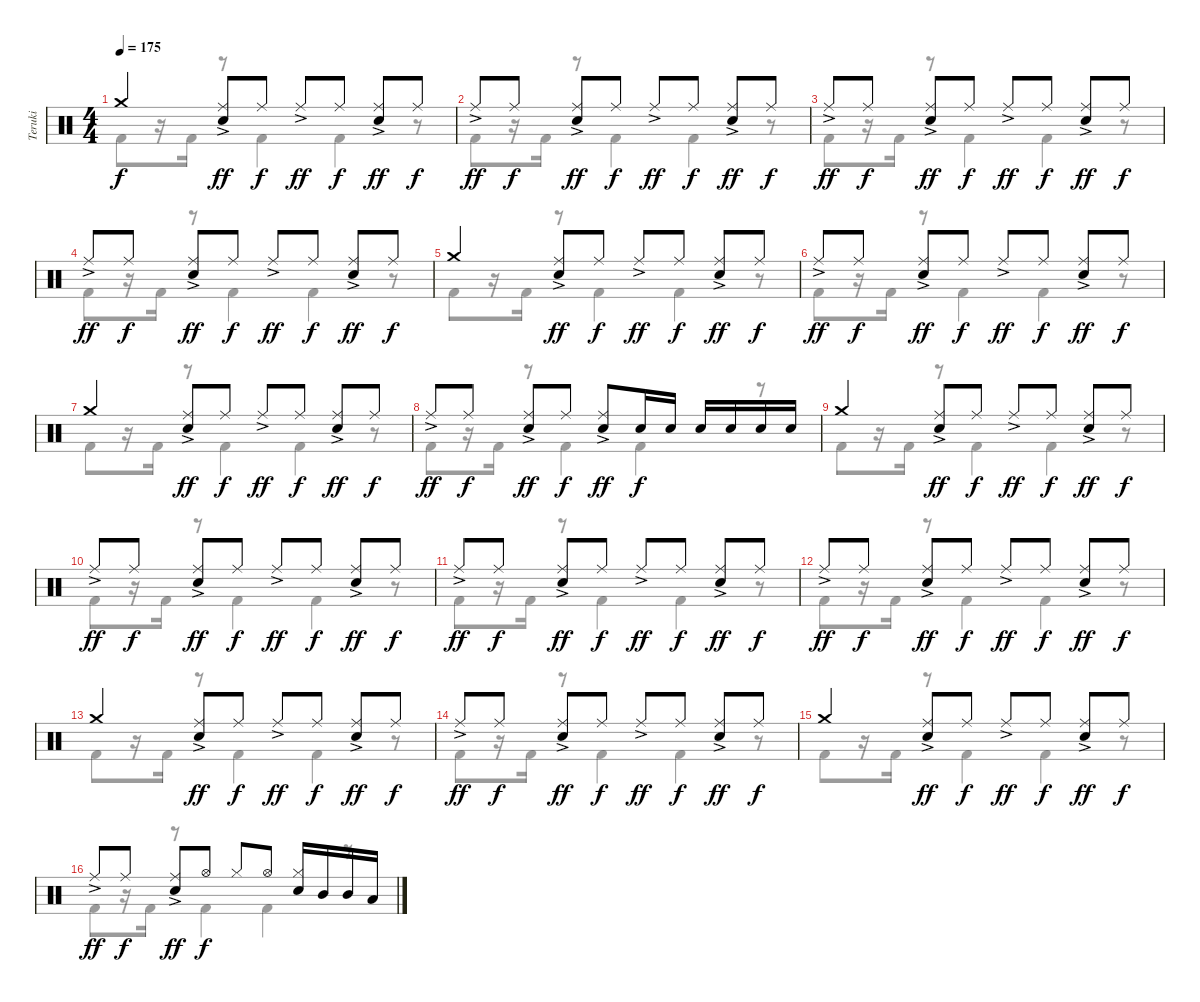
\track ("Teruki" "Teruki") {instrument percussion}
\staff {score}
\articulation defaults
\voice
\ts (4 4)
\tempo 175
\clef neutral
\ks c "Crash medium (hit)".4{dy f}
("Ride (middle)"{ac} "Snare (hit) 2").8{dy ff} "Ride (middle)".8{dy f} "Ride (middle)"{ac}.8{dy ff} "Ride (middle)".8{dy f} ("Ride (middle)"{ac} "Snare (hit) 2").8{dy ff} "Ride (middle)".8{dy f} |
"Ride (middle)"{ac}.8{dy ff} "Ride (middle)".8{dy f} ("Ride (middle)"{ac} "Snare (hit) 2").8{dy ff} "Ride (middle)".8{dy f} "Ride (middle)"{ac}.8{dy ff} "Ride (middle)".8{dy f} ("Ride (middle)"{ac} "Snare (hit) 2").8{dy ff} "Ride (middle)".8{dy f} |
"Ride (middle)"{ac}.8{dy ff} "Ride (middle)".8{dy f} ("Ride (middle)"{ac} "Snare (hit) 2").8{dy ff} "Ride (middle)".8{dy f} "Ride (middle)"{ac}.8{dy ff} "Ride (middle)".8{dy f} ("Ride (middle)"{ac} "Snare (hit) 2").8{dy ff} "Ride (middle)".8{dy f} |
"Ride (middle)"{ac}.8{dy ff} "Ride (middle)".8{dy f} ("Ride (middle)"{ac} "Snare (hit) 2").8{dy ff} "Ride (middle)".8{dy f} "Ride (middle)"{ac}.8{dy ff} "Ride (middle)".8{dy f} ("Ride (middle)"{ac} "Snare (hit) 2").8{dy ff} "Ride (middle)".8{dy f} |
"Crash medium (hit)".4 ("Ride (middle)"{ac} "Snare (hit) 2").8{dy ff} "Ride (middle)".8{dy f} "Ride (middle)"{ac}.8{dy ff} "Ride (middle)".8{dy f} ("Ride (middle)"{ac} "Snare (hit) 2").8{dy ff} "Ride (middle)".8{dy f} |
"Ride (middle)"{ac}.8{dy ff} "Ride (middle)".8{dy f} ("Ride (middle)"{ac} "Snare (hit) 2").8{dy ff} "Ride (middle)".8{dy f} "Ride (middle)"{ac}.8{dy ff} "Ride (middle)".8{dy f} ("Ride (middle)"{ac} "Snare (hit) 2").8{dy ff} "Ride (middle)".8{dy f} |
"Crash medium (hit)".4 ("Ride (middle)"{ac} "Snare (hit) 2").8{dy ff} "Ride (middle)".8{dy f} "Ride (middle)"{ac}.8{dy ff} "Ride (middle)".8{dy f} ("Ride (middle)"{ac} "Snare (hit) 2").8{dy ff} "Ride (middle)".8{dy f} |
"Ride (middle)"{ac}.8{dy ff} "Ride (middle)".8{dy f} ("Ride (middle)"{ac} "Snare (hit) 2").8{dy ff} "Ride (middle)".8{dy f} ("Ride (middle)"{ac} "Snare (hit) 2").8{dy ff} "Snare (hit) 2".16{dy f} "Snare (hit) 2".16 "Snare (hit) 2".16 "Snare (hit) 2".16 "Snare (hit) 2".16 "Snare (hit) 2".16 |
"Crash medium (hit)".4 ("Ride (middle)"{ac} "Snare (hit) 2").8{dy ff} "Ride (middle)".8{dy f} "Ride (middle)"{ac}.8{dy ff} "Ride (middle)".8{dy f} ("Ride (middle)"{ac} "Snare (hit) 2").8{dy ff} "Ride (middle)".8{dy f} |
"Ride (middle)"{ac}.8{dy ff} "Ride (middle)".8{dy f} ("Ride (middle)"{ac} "Snare (hit) 2").8{dy ff} "Ride (middle)".8{dy f} "Ride (middle)"{ac}.8{dy ff} "Ride (middle)".8{dy f} ("Ride (middle)"{ac} "Snare (hit) 2").8{dy ff} "Ride (middle)".8{dy f} |
"Ride (middle)"{ac}.8{dy ff} "Ride (middle)".8{dy f} ("Ride (middle)"{ac} "Snare (hit) 2").8{dy ff} "Ride (middle)".8{dy f} "Ride (middle)"{ac}.8{dy ff} "Ride (middle)".8{dy f} ("Ride (middle)"{ac} "Snare (hit) 2").8{dy ff} "Ride (middle)".8{dy f} |
"Ride (middle)"{ac}.8{dy ff} "Ride (middle)".8{dy f} ("Ride (middle)"{ac} "Snare (hit) 2").8{dy ff} "Ride (middle)".8{dy f} "Ride (middle)"{ac}.8{dy ff} "Ride (middle)".8{dy f} ("Ride (middle)"{ac} "Snare (hit) 2").8{dy ff} "Ride (middle)".8{dy f} |
"Crash medium (hit)".4 ("Ride (middle)"{ac} "Snare (hit) 2").8{dy ff} "Ride (middle)".8{dy f} "Ride (middle)"{ac}.8{dy ff} "Ride (middle)".8{dy f} ("Ride (middle)"{ac} "Snare (hit) 2").8{dy ff} "Ride (middle)".8{dy f} |
"Ride (middle)"{ac}.8{dy ff} "Ride (middle)".8{dy f} ("Ride (middle)"{ac} "Snare (hit) 2").8{dy ff} "Ride (middle)".8{dy f} "Ride (middle)"{ac}.8{dy ff} "Ride (middle)".8{dy f} ("Ride (middle)"{ac} "Snare (hit) 2").8{dy ff} "Ride (middle)".8{dy f} |
"Crash medium (hit)".4 ("Ride (middle)"{ac} "Snare (hit) 2").8{dy ff} "Ride (middle)".8{dy f} "Ride (middle)"{ac}.8{dy ff} "Ride (middle)".8{dy f} ("Ride (middle)"{ac} "Snare (hit) 2").8{dy ff} "Ride (middle)".8{dy f} |
"Ride (middle)"{ac}.8{dy ff} "Ride (middle)".8{dy f} ("Ride (middle)"{ac} "Snare (hit) 2").8{dy ff} "Hi-Hat (open)".8{dy f} "Hi-Hat (closed)".8 "Hi-Hat (open)".8 ("Hi-Hat (closed)" "Snare (hit) 2").16 "Mid Tom (hit)".16 "Mid Tom (hit)".16 "Low Tom (hit)".16
\voice
\clef neutral
\ottava regular
\simile none
\ks c "Kick (hit) 2".8{dy f}
r.16 "Kick (hit) 2".16 r.8 "Kick (hit) 2".4 "Kick (hit) 2".4 r.8 |
"Kick (hit) 2".8 r.16 "Kick (hit) 2".16 r.8 "Kick (hit) 2".4 "Kick (hit) 2".4 r.8 |
"Kick (hit) 2".8 r.16 "Kick (hit) 2".16 r.8 "Kick (hit) 2".4 "Kick (hit) 2".4 r.8 |
"Kick (hit) 2".8 r.16 "Kick (hit) 2".16 r.8 "Kick (hit) 2".4 "Kick (hit) 2".4 r.8 |
"Kick (hit) 2".8 r.16 "Kick (hit) 2".16 r.8 "Kick (hit) 2".4 "Kick (hit) 2".4 r.8 |
"Kick (hit) 2".8 r.16 "Kick (hit) 2".16 r.8 "Kick (hit) 2".4 "Kick (hit) 2".4 r.8 |
"Kick (hit) 2".8 r.16 "Kick (hit) 2".16 r.8 "Kick (hit) 2".4 "Kick (hit) 2".4 r.8 |
"Kick (hit) 2".8 r.16 "Kick (hit) 2".16 r.8 "Kick (hit) 2".4 "Kick (hit) 2".4 r.8 |
"Kick (hit) 2".8 r.16 "Kick (hit) 2".16 r.8 "Kick (hit) 2".4 "Kick (hit) 2".4 r.8 |
"Kick (hit) 2".8 r.16 "Kick (hit) 2".16 r.8 "Kick (hit) 2".4 "Kick (hit) 2".4 r.8 |
"Kick (hit) 2".8 r.16 "Kick (hit) 2".16 r.8 "Kick (hit) 2".4 "Kick (hit) 2".4 r.8 |
"Kick (hit) 2".8 r.16 "Kick (hit) 2".16 r.8 "Kick (hit) 2".4 "Kick (hit) 2".4 r.8 |
"Kick (hit) 2".8 r.16 "Kick (hit) 2".16 r.8 "Kick (hit) 2".4 "Kick (hit) 2".4 r.8 |
"Kick (hit) 2".8 r.16 "Kick (hit) 2".16 r.8 "Kick (hit) 2".4 "Kick (hit) 2".4 r.8 |
"Kick (hit) 2".8 r.16 "Kick (hit) 2".16 r.8 "Kick (hit) 2".4 "Kick (hit) 2".4 r.8 |
"Kick (hit) 2".8 r.16 "Kick (hit) 2".16 r.8 "Kick (hit) 2".4 "Kick (hit) 2".4 r.8
